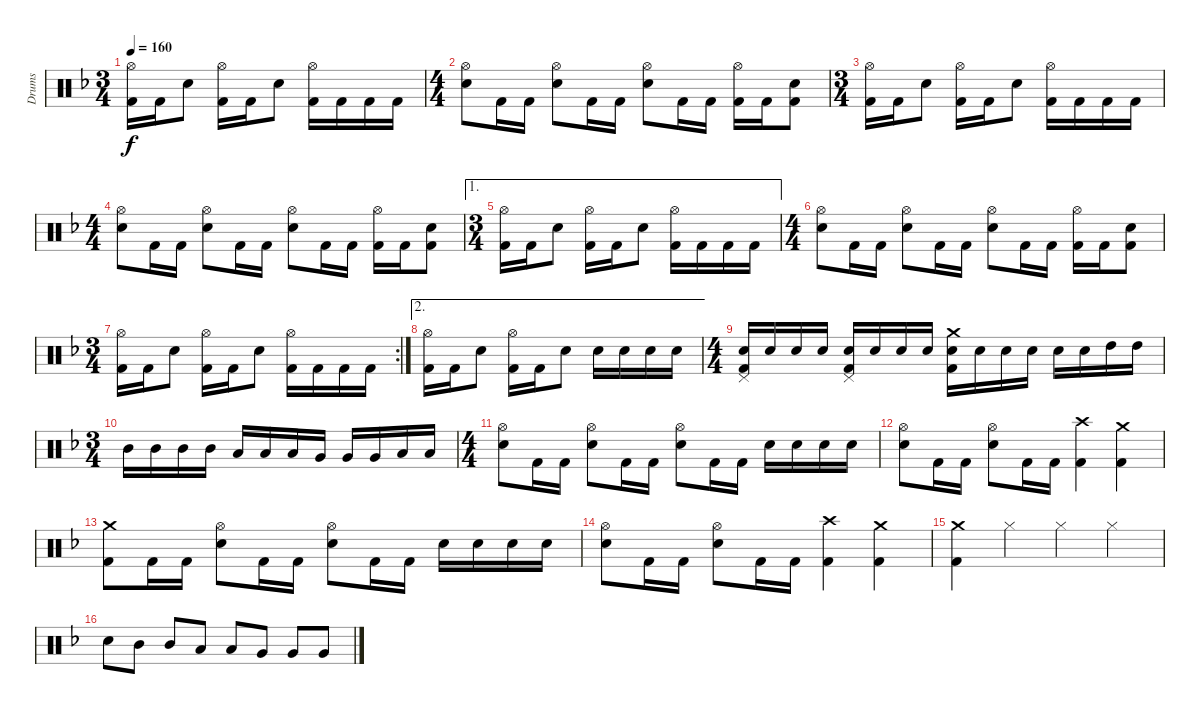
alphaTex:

\track ("Drums" "Drums") {instrument percussion}
\staff {score}
\articulation defaults
\ts (3 4)
\tempo 160
\clef neutral
\ks f
("Hi-Hat (open)" "Kick (hit) 2").16{dy f} "Kick (hit) 2".16 "Electric Snare (hit)".8 ("Hi-Hat (open)" "Kick (hit) 2").16 "Kick (hit) 2".16 "Electric Snare (hit)".8 ("Hi-Hat (open)" "Kick (hit) 2").16 "Kick (hit) 2".16 "Kick (hit) 2".16 "Kick (hit) 2".16 |
\ts (4 4)
("Hi-Hat (open)" "Electric Snare (hit)").8 "Kick (hit) 2".16 "Kick (hit) 2".16 ("Hi-Hat (open)" "Electric Snare (hit)").8 "Kick (hit) 2".16 "Kick (hit) 2".16 ("Hi-Hat (open)" "Electric Snare (hit)").8 "Kick (hit) 2".16 "Kick (hit) 2".16 ("Hi-Hat (open)" "Kick (hit) 2").16 "Kick (hit) 2".16 ("Electric Snare (hit)" "Kick (hit) 2").8 |
\ts (3 4)
("Hi-Hat (open)" "Kick (hit) 2").16 "Kick (hit) 2".16 "Electric Snare (hit)".8 ("Hi-Hat (open)" "Kick (hit) 2").16 "Kick (hit) 2".16 "Electric Snare (hit)".8 ("Hi-Hat (open)" "Kick (hit) 2").16 "Kick (hit) 2".16 "Kick (hit) 2".16 "Kick (hit) 2".16 |
\ts (4 4)
("Hi-Hat (open)" "Electric Snare (hit)").8 "Kick (hit) 2".16 "Kick (hit) 2".16 ("Hi-Hat (open)" "Electric Snare (hit)").8 "Kick (hit) 2".16 "Kick (hit) 2".16 ("Hi-Hat (open)" "Electric Snare (hit)").8 "Kick (hit) 2".16 "Kick (hit) 2".16 ("Hi-Hat (open)" "Kick (hit) 2").16 "Kick (hit) 2".16 ("Electric Snare (hit)" "Kick (hit) 2").8 |
\ae 1
\ts (3 4)
("Hi-Hat (open)" "Kick (hit) 2").16 "Kick (hit) 2".16 "Electric Snare (hit)".8 ("Hi-Hat (open)" "Kick (hit) 2").16 "Kick (hit) 2".16 "Electric Snare (hit)".8 ("Hi-Hat (open)" "Kick (hit) 2").16 "Kick (hit) 2".16 "Kick (hit) 2".16 "Kick (hit) 2".16 |
\ts (4 4)
("Hi-Hat (open)" "Electric Snare (hit)").8 "Kick (hit) 2".16 "Kick (hit) 2".16 ("Hi-Hat (open)" "Electric Snare (hit)").8 "Kick (hit) 2".16 "Kick (hit) 2".16 ("Hi-Hat (open)" "Electric Snare (hit)").8 "Kick (hit) 2".16 "Kick (hit) 2".16 ("Hi-Hat (open)" "Kick (hit) 2").16 "Kick (hit) 2".16 ("Electric Snare (hit)" "Kick (hit) 2").8 |
\rc 2
\ts (3 4)
("Hi-Hat (open)" "Kick (hit) 2").16 "Kick (hit) 2".16 "Electric Snare (hit)".8 ("Hi-Hat (open)" "Kick (hit) 2").16 "Kick (hit) 2".16 "Electric Snare (hit)".8 ("Hi-Hat (open)" "Kick (hit) 2").16 "Kick (hit) 2".16 "Kick (hit) 2".16 "Kick (hit) 2".16 |
\ae 2
("Hi-Hat (open)" "Kick (hit) 2").16 "Kick (hit) 2".16 "Electric Snare (hit)".8 ("Hi-Hat (open)" "Kick (hit) 2").16 "Kick (hit) 2".16 "Electric Snare (hit)".8 "Electric Snare (hit)".16 "Electric Snare (hit)".16 "Electric Snare (hit)".16 "Electric Snare (hit)".16 |
\ts (4 4)
("Pedal Hi-Hat (hit)" "Electric Snare (hit)" "Kick (hit) 2").16 "Electric Snare (hit)".16 "Electric Snare (hit)".16 "Electric Snare (hit)".16 ("Pedal Hi-Hat (hit)" "Electric Snare (hit)" "Kick (hit) 2").16 "Electric Snare (hit)".16 "Electric Snare (hit)".16 "Electric Snare (hit)".16 ("Crash medium (hit)" "Electric Snare (hit)" "Kick (hit) 2").16 "Electric Snare (hit)".16 "Electric Snare (hit)".16 "Electric Snare (hit)".16 "Electric Snare (hit)".16 "Electric Snare (hit)".16 "High Tom (hit)".16 "High Tom (hit)".16 |
\ts (3 4)
"Mid Tom (hit)".16 "Mid Tom (hit)".16 "Mid Tom (hit)".16 "Mid Tom (hit)".16 "Low Tom (hit)".16 "Low Tom (hit)".16 "Low Tom (hit)".16 "Very Low Tom (hit)".16 "Very Low Tom (hit)".16 "Very Low Tom (hit)".16 "Low Floor Tom (hit)".16 "Low Floor Tom (hit)".16 |
\ts (4 4)
("Hi-Hat (open)" "Electric Snare (hit)").8 "Kick (hit) 2".16 "Kick (hit) 2".16 ("Hi-Hat (open)" "Electric Snare (hit)").8 "Kick (hit) 2".16 "Kick (hit) 2".16 ("Hi-Hat (open)" "Electric Snare (hit)").8 "Kick (hit) 2".16 "Kick (hit) 2".16 "Electric Snare (hit)".16 "Electric Snare (hit)".16 "Electric Snare (hit)".16 "Electric Snare (hit)".16 |
("Hi-Hat (open)" "Electric Snare (hit)").8 "Kick (hit) 2".16 "Kick (hit) 2".16 ("Hi-Hat (open)" "Electric Snare (hit)").8 "Kick (hit) 2".16 "Kick (hit) 2".16 ("Crash high (hit)" "Kick (hit) 2").4 ("Crash medium (hit)" "Kick (hit) 2").4 |
("Crash medium (hit)" "Kick (hit) 2").8 "Kick (hit) 2".16 "Kick (hit) 2".16 ("Hi-Hat (open)" "Electric Snare (hit)").8 "Kick (hit) 2".16 "Kick (hit) 2".16 ("Hi-Hat (open)" "Electric Snare (hit)").8 "Kick (hit) 2".16 "Kick (hit) 2".16 "Electric Snare (hit)".16 "Electric Snare (hit)".16 "Electric Snare (hit)".16 "Electric Snare (hit)".16 |
("Hi-Hat (open)" "Electric Snare (hit)").8 "Kick (hit) 2".16 "Kick (hit) 2".16 ("Hi-Hat (open)" "Electric Snare (hit)").8 "Kick (hit) 2".16 "Kick (hit) 2".16 ("Crash high (hit)" "Kick (hit) 2").4 ("Crash medium (hit)" "Kick (hit) 2").4 |
("Crash medium (hit)" "Kick (hit) 2").4 "Hi-Hat (closed)".4 "Hi-Hat (closed)".4 "Hi-Hat (closed)".4 |
"Electric Snare (hit)".8 "Mid Tom (hit)".8 "Mid Tom (hit)".8 "Low Tom (hit)".8 "Low Tom (hit)".8 "Very Low Tom (hit)".8 "Very Low Tom (hit)".8 "Very Low Tom (hit)".8
